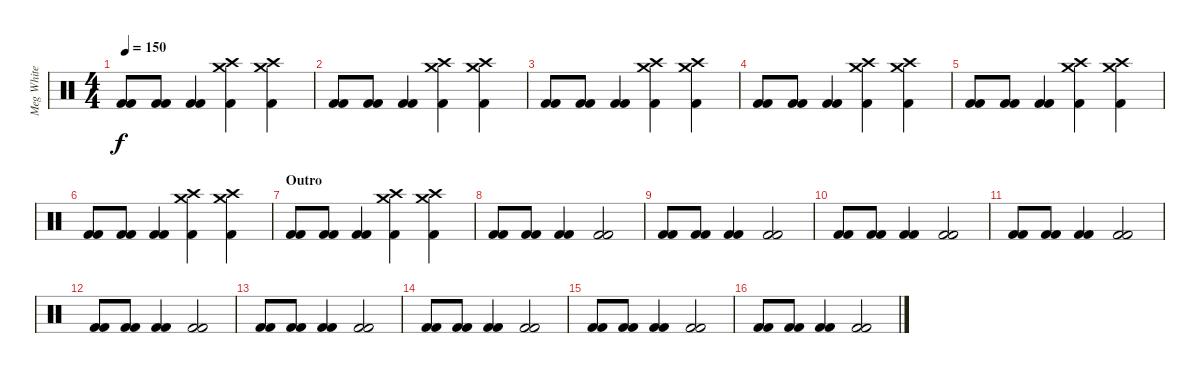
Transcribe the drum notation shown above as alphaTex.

\track ("Meg White" "Meg White") {instrument percussion}
\staff {score}
\articulation defaults
\ts (4 4)
\tempo 150
\clef neutral
\ks c
("Kick (hit) 2" "Kick (hit) 2").8{dy f} ("Kick (hit) 2" "Kick (hit) 2").8 ("Kick (hit) 2" "Kick (hit) 2").4 ("Crash high (hit)" "Crash medium (hit)" "Kick (hit) 2").4 ("Crash high (hit)" "Crash medium (hit)" "Kick (hit) 2").4 |
("Kick (hit) 2" "Kick (hit) 2").8 ("Kick (hit) 2" "Kick (hit) 2").8 ("Kick (hit) 2" "Kick (hit) 2").4 ("Crash high (hit)" "Crash medium (hit)" "Kick (hit) 2").4 ("Crash high (hit)" "Crash medium (hit)" "Kick (hit) 2").4 |
("Kick (hit) 2" "Kick (hit) 2").8 ("Kick (hit) 2" "Kick (hit) 2").8 ("Kick (hit) 2" "Kick (hit) 2").4 ("Crash high (hit)" "Crash medium (hit)" "Kick (hit) 2").4 ("Crash high (hit)" "Crash medium (hit)" "Kick (hit) 2").4 |
("Kick (hit) 2" "Kick (hit) 2").8 ("Kick (hit) 2" "Kick (hit) 2").8 ("Kick (hit) 2" "Kick (hit) 2").4 ("Crash high (hit)" "Crash medium (hit)" "Kick (hit) 2").4 ("Crash high (hit)" "Crash medium (hit)" "Kick (hit) 2").4 |
("Kick (hit) 2" "Kick (hit) 2").8 ("Kick (hit) 2" "Kick (hit) 2").8 ("Kick (hit) 2" "Kick (hit) 2").4 ("Crash high (hit)" "Crash medium (hit)" "Kick (hit) 2").4 ("Crash high (hit)" "Crash medium (hit)" "Kick (hit) 2").4 |
("Kick (hit) 2" "Kick (hit) 2").8 ("Kick (hit) 2" "Kick (hit) 2").8 ("Kick (hit) 2" "Kick (hit) 2").4 ("Crash high (hit)" "Crash medium (hit)" "Kick (hit) 2").4 ("Crash high (hit)" "Crash medium (hit)" "Kick (hit) 2").4 |
\section ("" "Outro")
("Kick (hit) 2" "Kick (hit) 2").8 ("Kick (hit) 2" "Kick (hit) 2").8 ("Kick (hit) 2" "Kick (hit) 2").4 ("Crash high (hit)" "Crash medium (hit)" "Kick (hit) 2").4 ("Crash high (hit)" "Crash medium (hit)" "Kick (hit) 2").4 |
("Kick (hit) 2" "Kick (hit) 2").8 ("Kick (hit) 2" "Kick (hit) 2").8 ("Kick (hit) 2" "Kick (hit) 2").4 ("Kick (hit) 2" "Kick (hit) 2").2 |
("Kick (hit) 2" "Kick (hit) 2").8 ("Kick (hit) 2" "Kick (hit) 2").8 ("Kick (hit) 2" "Kick (hit) 2").4 ("Kick (hit) 2" "Kick (hit) 2").2 |
("Kick (hit) 2" "Kick (hit) 2").8 ("Kick (hit) 2" "Kick (hit) 2").8 ("Kick (hit) 2" "Kick (hit) 2").4 ("Kick (hit) 2" "Kick (hit) 2").2 |
("Kick (hit) 2" "Kick (hit) 2").8 ("Kick (hit) 2" "Kick (hit) 2").8 ("Kick (hit) 2" "Kick (hit) 2").4 ("Kick (hit) 2" "Kick (hit) 2").2 |
("Kick (hit) 2" "Kick (hit) 2").8 ("Kick (hit) 2" "Kick (hit) 2").8 ("Kick (hit) 2" "Kick (hit) 2").4 ("Kick (hit) 2" "Kick (hit) 2").2 |
("Kick (hit) 2" "Kick (hit) 2").8 ("Kick (hit) 2" "Kick (hit) 2").8 ("Kick (hit) 2" "Kick (hit) 2").4 ("Kick (hit) 2" "Kick (hit) 2").2 |
("Kick (hit) 2" "Kick (hit) 2").8 ("Kick (hit) 2" "Kick (hit) 2").8 ("Kick (hit) 2" "Kick (hit) 2").4 ("Kick (hit) 2" "Kick (hit) 2").2 |
("Kick (hit) 2" "Kick (hit) 2").8 ("Kick (hit) 2" "Kick (hit) 2").8 ("Kick (hit) 2" "Kick (hit) 2").4 ("Kick (hit) 2" "Kick (hit) 2").2 |
("Kick (hit) 2" "Kick (hit) 2").8 ("Kick (hit) 2" "Kick (hit) 2").8 ("Kick (hit) 2" "Kick (hit) 2").4 ("Kick (hit) 2" "Kick (hit) 2").2
